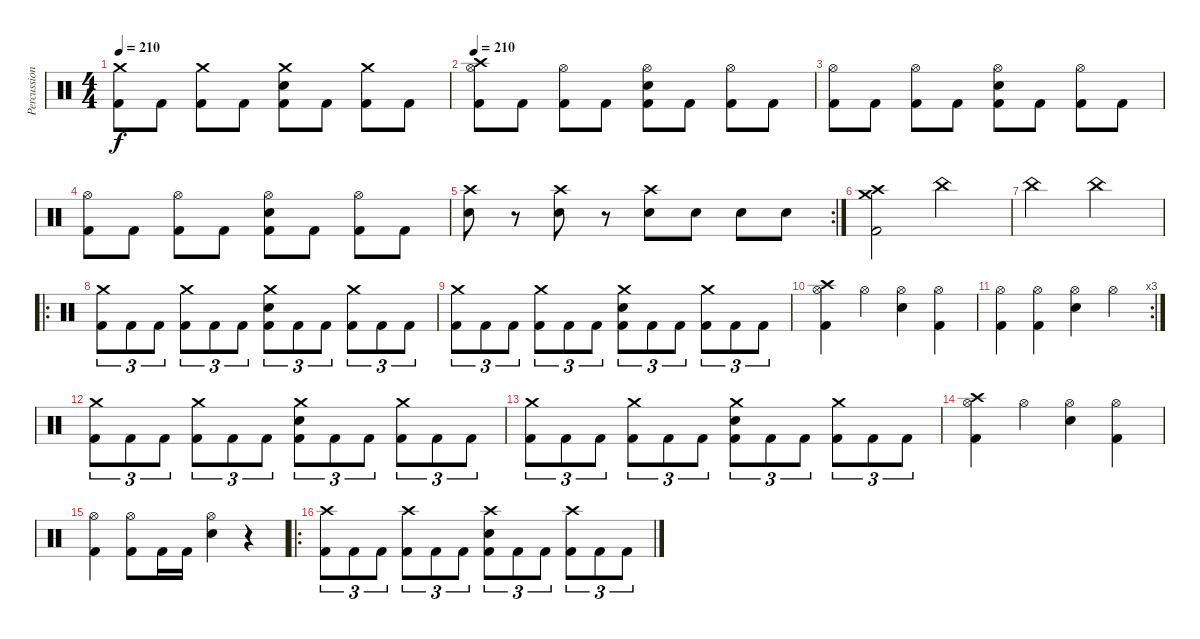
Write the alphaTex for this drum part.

\track ("Percussion" "Percussion") {instrument percussion}
\staff {score}
\articulation defaults
\ts (4 4)
\tempo 210
\clef neutral
\ks c
("Crash medium (hit)" "Kick (hit) 2").8{dy f} "Kick (hit) 2".8 ("Crash medium (hit)" "Kick (hit) 2").8 "Kick (hit) 2".8 ("Crash medium (hit)" "Electric Snare (hit)" "Kick (hit) 2").8 "Kick (hit) 2".8 ("Crash medium (hit)" "Kick (hit) 2").8 "Kick (hit) 2".8 |
\tempo 210
("Hi-Hat (open)" "Crash high (hit)" "Kick (hit) 2").8 "Kick (hit) 2".8 ("Hi-Hat (open)" "Kick (hit) 2").8 "Kick (hit) 2".8 ("Hi-Hat (open)" "Electric Snare (hit)" "Kick (hit) 2").8 "Kick (hit) 2".8 ("Hi-Hat (open)" "Kick (hit) 2").8 "Kick (hit) 2".8 |
("Hi-Hat (open)" "Kick (hit) 2").8 "Kick (hit) 2".8 ("Hi-Hat (open)" "Kick (hit) 2").8 "Kick (hit) 2".8 ("Hi-Hat (open)" "Electric Snare (hit)" "Kick (hit) 2").8 "Kick (hit) 2".8 ("Hi-Hat (open)" "Kick (hit) 2").8 "Kick (hit) 2".8 |
("Hi-Hat (open)" "Kick (hit) 2").8 "Kick (hit) 2".8 ("Hi-Hat (open)" "Kick (hit) 2").8 "Kick (hit) 2".8 ("Hi-Hat (open)" "Electric Snare (hit)" "Kick (hit) 2").8 "Kick (hit) 2".8 ("Hi-Hat (open)" "Kick (hit) 2").8 "Kick (hit) 2".8 |
\rc 2
("Crash high (hit)" "Electric Snare (hit)").8 r.8 ("Crash high (hit)" "Electric Snare (hit)").8 r.8 ("Crash high (hit)" "Electric Snare (hit)").8 "Electric Snare (hit)".8 "Electric Snare (hit)".8 "Electric Snare (hit)".8 |
("Crash high (hit)" "Crash medium (hit)" "Kick (hit) 2").2 "China (hit)".2 |
"China (hit)".2 "China (hit)".2 |
\ro
("Crash medium (hit)" "Kick (hit) 2").8{tu (3 2)} "Kick (hit) 2".8{tu (3 2)} "Kick (hit) 2".8{tu (3 2)} ("Crash medium (hit)" "Kick (hit) 2").8{tu (3 2)} "Kick (hit) 2".8{tu (3 2)} "Kick (hit) 2".8{tu (3 2)} ("Crash medium (hit)" "Electric Snare (hit)" "Kick (hit) 2").8{tu (3 2)} "Kick (hit) 2".8{tu (3 2)} "Kick (hit) 2".8{tu (3 2)} ("Crash medium (hit)" "Kick (hit) 2").8{tu (3 2)} "Kick (hit) 2".8{tu (3 2)} "Kick (hit) 2".8{tu (3 2)} |
("Crash medium (hit)" "Kick (hit) 2").8{tu (3 2)} "Kick (hit) 2".8{tu (3 2)} "Kick (hit) 2".8{tu (3 2)} ("Crash medium (hit)" "Kick (hit) 2").8{tu (3 2)} "Kick (hit) 2".8{tu (3 2)} "Kick (hit) 2".8{tu (3 2)} ("Crash medium (hit)" "Electric Snare (hit)" "Kick (hit) 2").8{tu (3 2)} "Kick (hit) 2".8{tu (3 2)} "Kick (hit) 2".8{tu (3 2)} ("Crash medium (hit)" "Kick (hit) 2").8{tu (3 2)} "Kick (hit) 2".8{tu (3 2)} "Kick (hit) 2".8{tu (3 2)} |
("Crash high (hit)" "Hi-Hat (open)" "Kick (hit) 2").4 "Hi-Hat (open)".4 ("Hi-Hat (open)" "Electric Snare (hit)").4 ("Hi-Hat (open)" "Kick (hit) 2").4 |
\rc 3
("Hi-Hat (open)" "Kick (hit) 2").4 ("Hi-Hat (open)" "Kick (hit) 2").4 ("Hi-Hat (open)" "Electric Snare (hit)").4 "Hi-Hat (open)".4 |
("Crash medium (hit)" "Kick (hit) 2").8{tu (3 2)} "Kick (hit) 2".8{tu (3 2)} "Kick (hit) 2".8{tu (3 2)} ("Crash medium (hit)" "Kick (hit) 2").8{tu (3 2)} "Kick (hit) 2".8{tu (3 2)} "Kick (hit) 2".8{tu (3 2)} ("Crash medium (hit)" "Electric Snare (hit)" "Kick (hit) 2").8{tu (3 2)} "Kick (hit) 2".8{tu (3 2)} "Kick (hit) 2".8{tu (3 2)} ("Crash medium (hit)" "Kick (hit) 2").8{tu (3 2)} "Kick (hit) 2".8{tu (3 2)} "Kick (hit) 2".8{tu (3 2)} |
("Crash medium (hit)" "Kick (hit) 2").8{tu (3 2)} "Kick (hit) 2".8{tu (3 2)} "Kick (hit) 2".8{tu (3 2)} ("Crash medium (hit)" "Kick (hit) 2").8{tu (3 2)} "Kick (hit) 2".8{tu (3 2)} "Kick (hit) 2".8{tu (3 2)} ("Crash medium (hit)" "Electric Snare (hit)" "Kick (hit) 2").8{tu (3 2)} "Kick (hit) 2".8{tu (3 2)} "Kick (hit) 2".8{tu (3 2)} ("Crash medium (hit)" "Kick (hit) 2").8{tu (3 2)} "Kick (hit) 2".8{tu (3 2)} "Kick (hit) 2".8{tu (3 2)} |
("Crash high (hit)" "Hi-Hat (open)" "Kick (hit) 2").4 "Hi-Hat (open)".4 ("Hi-Hat (open)" "Electric Snare (hit)").4 ("Hi-Hat (open)" "Kick (hit) 2").4 |
("Hi-Hat (open)" "Kick (hit) 2").4 ("Hi-Hat (open)" "Kick (hit) 2").8 "Kick (hit) 2".16 "Kick (hit) 2".16 ("Hi-Hat (open)" "Electric Snare (hit)").4 r.4 |
\ro
("Crash high (hit)" "Kick (hit) 2").8{tu (3 2)} "Kick (hit) 2".8{tu (3 2)} "Kick (hit) 2".8{tu (3 2)} ("Crash high (hit)" "Kick (hit) 2").8{tu (3 2)} "Kick (hit) 2".8{tu (3 2)} "Kick (hit) 2".8{tu (3 2)} ("Crash high (hit)" "Electric Snare (hit)" "Kick (hit) 2").8{tu (3 2)} "Kick (hit) 2".8{tu (3 2)} "Kick (hit) 2".8{tu (3 2)} ("Crash high (hit)" "Kick (hit) 2").8{tu (3 2)} "Kick (hit) 2".8{tu (3 2)} "Kick (hit) 2".8{tu (3 2)}
